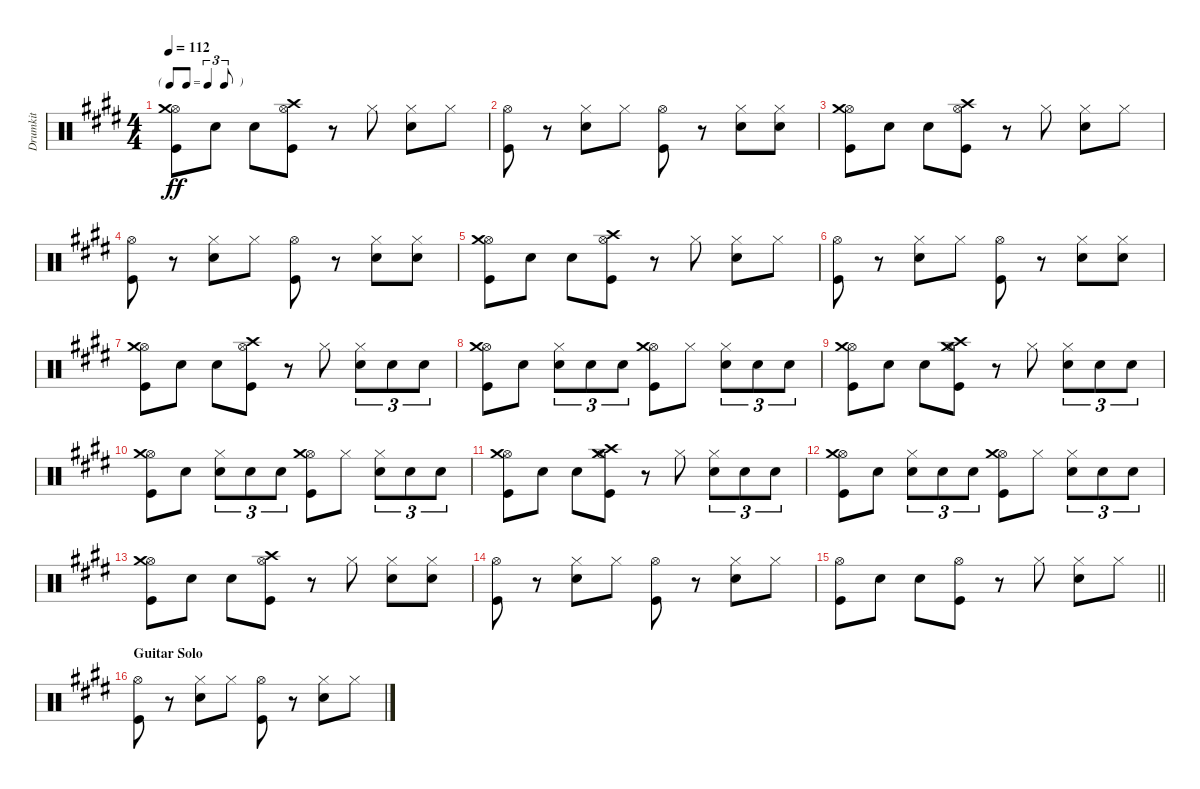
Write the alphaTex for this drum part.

\track ("Drumkit" "Drumkit") {instrument percussion}
\staff {score}
\articulation defaults
\ts (4 4)
\tf triplet8th
\tempo 112
\clef neutral
\ks e
("Hi-Hat (open)" "Kick (hit)" "Crash medium (hit)").8{dy ff} "Snare (hit) 2".8 "Snare (hit) 2".8 ("Kick (hit)" "Hi-Hat (open)" "Crash high (hit)").8 r.8 "Hi-Hat (closed)".8 ("Snare (hit) 2" "Hi-Hat (closed)").8 "Hi-Hat (closed)".8 |
("Hi-Hat (open)" "Kick (hit)").8 r.8 ("Snare (hit) 2" "Hi-Hat (closed)").8 "Hi-Hat (closed)".8 ("Kick (hit)" "Hi-Hat (open)").8 r.8 ("Snare (hit) 2" "Hi-Hat (closed)").8 ("Hi-Hat (closed)" "Snare (hit) 2").8 |
("Hi-Hat (open)" "Kick (hit)" "Crash medium (hit)").8 "Snare (hit) 2".8 "Snare (hit) 2".8 ("Kick (hit)" "Hi-Hat (open)" "Crash high (hit)").8 r.8 "Hi-Hat (closed)".8 ("Snare (hit) 2" "Hi-Hat (closed)").8 "Hi-Hat (closed)".8 |
("Hi-Hat (open)" "Kick (hit)").8 r.8 ("Snare (hit) 2" "Hi-Hat (closed)").8 "Hi-Hat (closed)".8 ("Kick (hit)" "Hi-Hat (open)").8 r.8 ("Snare (hit) 2" "Hi-Hat (closed)").8 ("Hi-Hat (closed)" "Snare (hit) 2").8 |
("Hi-Hat (open)" "Kick (hit)" "Crash medium (hit)").8 "Snare (hit) 2".8 "Snare (hit) 2".8 ("Kick (hit)" "Hi-Hat (open)" "Crash high (hit)").8 r.8 "Hi-Hat (closed)".8 ("Snare (hit) 2" "Hi-Hat (closed)").8 "Hi-Hat (closed)".8 |
("Hi-Hat (open)" "Kick (hit)").8 r.8 ("Snare (hit) 2" "Hi-Hat (closed)").8 "Hi-Hat (closed)".8 ("Kick (hit)" "Hi-Hat (open)").8 r.8 ("Snare (hit) 2" "Hi-Hat (closed)").8 ("Hi-Hat (closed)" "Snare (hit) 2").8 |
("Hi-Hat (open)" "Kick (hit)" "Crash medium (hit)").8 "Snare (hit) 2".8 "Snare (hit) 2".8 ("Kick (hit)" "Hi-Hat (open)" "Crash high (hit)").8 r.8 "Hi-Hat (closed)".8 ("Snare (hit) 2" "Hi-Hat (closed)").8{tu (3 2)} "Snare (hit) 2".8{tu (3 2)} "Snare (hit) 2".8{tu (3 2)} |
("Hi-Hat (open)" "Kick (hit)" "Crash medium (hit)").8 "Snare (hit) 2".8 ("Snare (hit) 2" "Hi-Hat (closed)").8{tu (3 2)} "Snare (hit) 2".8{tu (3 2)} "Snare (hit) 2".8{tu (3 2)} ("Hi-Hat (open)" "Kick (hit)" "Crash medium (hit)").8 "Hi-Hat (closed)".8 ("Snare (hit) 2" "Hi-Hat (closed)").8{tu (3 2)} "Snare (hit) 2".8{tu (3 2)} "Snare (hit) 2".8{tu (3 2)} |
("Hi-Hat (open)" "Kick (hit)" "Crash medium (hit)").8 "Snare (hit) 2".8 "Snare (hit) 2".8 ("Kick (hit)" "Hi-Hat (open)" "Crash high (hit)" "Crash medium (hit)").8 r.8 "Hi-Hat (closed)".8 ("Snare (hit) 2" "Hi-Hat (closed)").8{tu (3 2)} "Snare (hit) 2".8{tu (3 2)} "Snare (hit) 2".8{tu (3 2)} |
("Hi-Hat (open)" "Kick (hit)" "Crash medium (hit)").8 "Snare (hit) 2".8 ("Snare (hit) 2" "Hi-Hat (closed)").8{tu (3 2)} "Snare (hit) 2".8{tu (3 2)} "Snare (hit) 2".8{tu (3 2)} ("Hi-Hat (open)" "Kick (hit)" "Crash medium (hit)").8 "Hi-Hat (closed)".8 ("Snare (hit) 2" "Hi-Hat (closed)").8{tu (3 2)} "Snare (hit) 2".8{tu (3 2)} "Snare (hit) 2".8{tu (3 2)} |
("Hi-Hat (open)" "Kick (hit)" "Crash medium (hit)").8 "Snare (hit) 2".8 "Snare (hit) 2".8 ("Kick (hit)" "Hi-Hat (open)" "Crash high (hit)" "Crash medium (hit)").8 r.8 "Hi-Hat (closed)".8 ("Snare (hit) 2" "Hi-Hat (closed)").8{tu (3 2)} "Snare (hit) 2".8{tu (3 2)} "Snare (hit) 2".8{tu (3 2)} |
("Hi-Hat (open)" "Kick (hit)" "Crash medium (hit)").8 "Snare (hit) 2".8 ("Snare (hit) 2" "Hi-Hat (closed)").8{tu (3 2)} "Snare (hit) 2".8{tu (3 2)} "Snare (hit) 2".8{tu (3 2)} ("Hi-Hat (open)" "Kick (hit)" "Crash medium (hit)").8 "Hi-Hat (closed)".8 ("Snare (hit) 2" "Hi-Hat (closed)").8{tu (3 2)} "Snare (hit) 2".8{tu (3 2)} "Snare (hit) 2".8{tu (3 2)} |
("Hi-Hat (open)" "Kick (hit)" "Crash medium (hit)").8 "Snare (hit) 2".8 "Snare (hit) 2".8 ("Kick (hit)" "Hi-Hat (open)" "Crash high (hit)").8 r.8 "Hi-Hat (closed)".8 ("Snare (hit) 2" "Hi-Hat (closed)").8 ("Hi-Hat (closed)" "Snare (hit) 2").8 |
("Hi-Hat (open)" "Kick (hit)").8 r.8 ("Snare (hit) 2" "Hi-Hat (closed)").8 "Hi-Hat (closed)".8 ("Kick (hit)" "Hi-Hat (open)").8 r.8 ("Snare (hit) 2" "Hi-Hat (closed)").8 "Hi-Hat (closed)".8 |
\barLineRight lightlight
("Kick (hit)" "Hi-Hat (open)").8 "Snare (hit) 2".8 "Snare (hit) 2".8 ("Kick (hit)" "Hi-Hat (open)").8 r.8 "Hi-Hat (closed)".8 ("Snare (hit) 2" "Hi-Hat (closed)").8 "Hi-Hat (closed)".8 |
\section ("" "Guitar Solo")
("Hi-Hat (open)" "Kick (hit)").8 r.8 ("Snare (hit) 2" "Hi-Hat (closed)").8 "Hi-Hat (closed)".8 ("Hi-Hat (open)" "Kick (hit)").8 r.8 ("Snare (hit) 2" "Hi-Hat (closed)").8 "Hi-Hat (closed)".8
